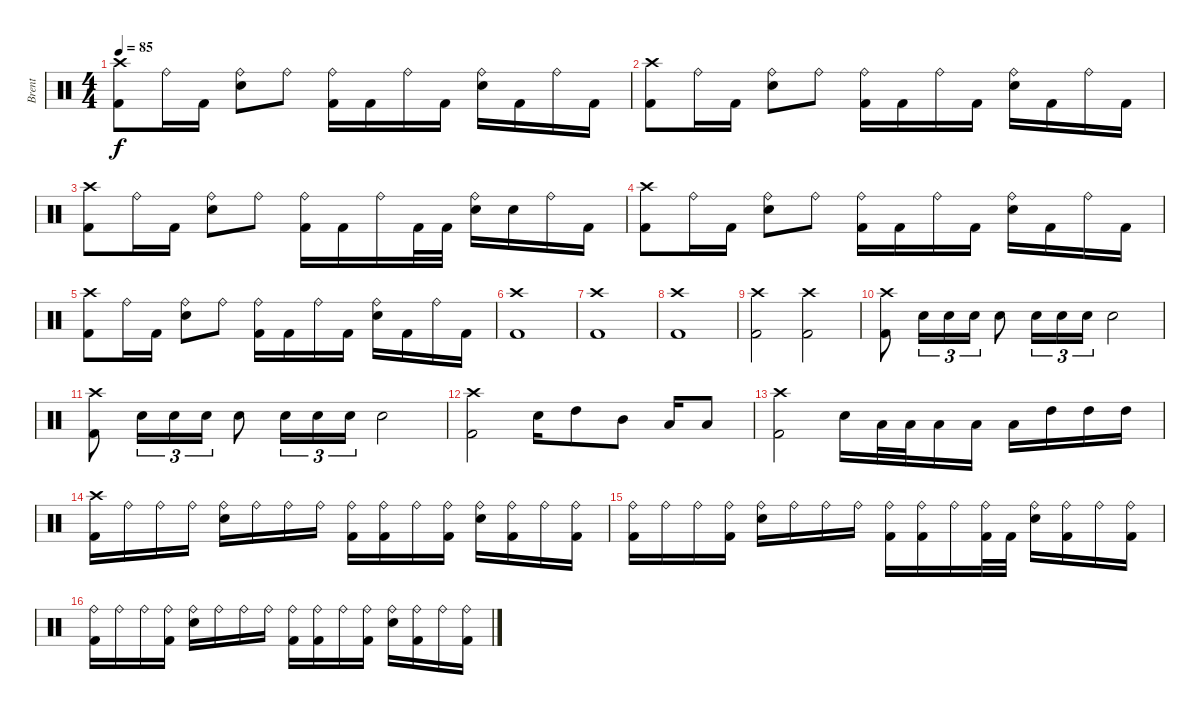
\track ("Brent" "Brent") {instrument percussion}
\staff {score}
\articulation defaults
\ts (4 4)
\tempo 85
\clef neutral
\ks c
("Crash high (hit)" "Kick (hit) 2").8{dy f} "Ride (bell)".16 "Kick (hit) 2".16 ("Ride (bell)" "Snare (hit) 2").8 "Ride (bell)".8 ("Ride (bell)" "Kick (hit) 2").16 "Kick (hit) 2".16 "Ride (bell)".16 "Kick (hit) 2".16 ("Ride (bell)" "Snare (hit) 2").16 "Kick (hit) 2".16 "Ride (bell)".16 "Kick (hit) 2".16 |
("Crash high (hit)" "Kick (hit) 2").8 "Ride (bell)".16 "Kick (hit) 2".16 ("Ride (bell)" "Snare (hit) 2").8 "Ride (bell)".8 ("Ride (bell)" "Kick (hit) 2").16 "Kick (hit) 2".16 "Ride (bell)".16 "Kick (hit) 2".16 ("Ride (bell)" "Snare (hit) 2").16 "Kick (hit) 2".16 "Ride (bell)".16 "Kick (hit) 2".16 |
("Crash high (hit)" "Kick (hit) 2").8 "Ride (bell)".16 "Kick (hit) 2".16 ("Ride (bell)" "Snare (hit) 2").8 "Ride (bell)".8 ("Ride (bell)" "Kick (hit) 2").16 "Kick (hit) 2".16 "Ride (bell)".16 "Kick (hit) 2".32 "Kick (hit) 2".32 ("Ride (bell)" "Snare (hit) 2").16 "Snare (hit) 2".16 "Ride (bell)".16 "Kick (hit) 2".16 |
("Crash high (hit)" "Kick (hit) 2").8 "Ride (bell)".16 "Kick (hit) 2".16 ("Ride (bell)" "Snare (hit) 2").8 "Ride (bell)".8 ("Ride (bell)" "Kick (hit) 2").16 "Kick (hit) 2".16 "Ride (bell)".16 "Kick (hit) 2".16 ("Ride (bell)" "Snare (hit) 2").16 "Kick (hit) 2".16 "Ride (bell)".16 "Kick (hit) 2".16 |
("Crash high (hit)" "Kick (hit) 2").8 "Ride (bell)".16 "Kick (hit) 2".16 ("Ride (bell)" "Snare (hit) 2").8 "Ride (bell)".8 ("Ride (bell)" "Kick (hit) 2").16 "Kick (hit) 2".16 "Ride (bell)".16 "Kick (hit) 2".16 ("Ride (bell)" "Snare (hit) 2").16 "Kick (hit) 2".16 "Ride (bell)".16 "Kick (hit) 2".16 |
("Crash high (hit)" "Kick (hit) 2").1 |
("Crash high (hit)" "Kick (hit) 2").1 |
("Crash high (hit)" "Kick (hit) 2").1 |
("Crash high (hit)" "Kick (hit) 2").2 ("Crash high (hit)" "Kick (hit) 2").2 |
("Crash high (hit)" "Kick (hit) 2").8 "Snare (hit) 2".16{tu (3 2)} "Snare (hit) 2".16{tu (3 2)} "Snare (hit) 2".16{tu (3 2)} "Snare (hit) 2".8 "Snare (hit) 2".16{tu (3 2)} "Snare (hit) 2".16{tu (3 2)} "Snare (hit) 2".16{tu (3 2)} "Snare (hit) 2".2 |
("Crash high (hit)" "Kick (hit) 2").8 "Snare (hit) 2".16{tu (3 2)} "Snare (hit) 2".16{tu (3 2)} "Snare (hit) 2".16{tu (3 2)} "Snare (hit) 2".8 "Snare (hit) 2".16{tu (3 2)} "Snare (hit) 2".16{tu (3 2)} "Snare (hit) 2".16{tu (3 2)} "Snare (hit) 2".2 |
("Crash high (hit)" "Kick (hit) 2").2 "Snare (hit) 2".16 "High Tom (hit)".8 "Mid Tom (hit)".8 "Low Tom (hit)".16 "Low Tom (hit)".8 |
("Crash high (hit)" "Kick (hit) 2").2 "Snare (hit) 2".16 "Low Tom (hit)".32 "Low Tom (hit)".32 "Low Tom (hit)".16 "Low Tom (hit)".16 "Low Tom (hit)".16 "High Tom (hit)".16 "High Tom (hit)".16 "High Tom (hit)".16 |
("Crash high (hit)" "Kick (hit) 2").16 "Ride (bell)".16 "Ride (bell)".16 "Ride (bell)".16 ("Ride (bell)" "Snare (hit) 2").16 "Ride (bell)".16 "Ride (bell)".16 "Ride (bell)".16 ("Ride (bell)" "Kick (hit) 2").16 ("Ride (bell)" "Kick (hit) 2").16 "Ride (bell)".16 ("Ride (bell)" "Kick (hit) 2").16 ("Ride (bell)" "Snare (hit) 2").16 ("Ride (bell)" "Kick (hit) 2").16 "Ride (bell)".16 ("Ride (bell)" "Kick (hit) 2").16 |
("Ride (bell)" "Kick (hit) 2").16 "Ride (bell)".16 "Ride (bell)".16 ("Ride (bell)" "Kick (hit) 2").16 ("Ride (bell)" "Snare (hit) 2").16 "Ride (bell)".16 "Ride (bell)".16 "Ride (bell)".16 ("Ride (bell)" "Kick (hit) 2").16 ("Ride (bell)" "Kick (hit) 2").16 "Ride (bell)".16 ("Ride (bell)" "Kick (hit) 2").32 "Kick (hit) 2".32 ("Ride (bell)" "Snare (hit) 2").16 ("Ride (bell)" "Kick (hit) 2").16 "Ride (bell)".16 ("Ride (bell)" "Kick (hit) 2").16 |
("Ride (bell)" "Kick (hit) 2").16 "Ride (bell)".16 "Ride (bell)".16 ("Ride (bell)" "Kick (hit) 2").16 ("Ride (bell)" "Snare (hit) 2").16 "Ride (bell)".16 "Ride (bell)".16 "Ride (bell)".16 ("Ride (bell)" "Kick (hit) 2").16 ("Ride (bell)" "Kick (hit) 2").16 "Ride (bell)".16 ("Ride (bell)" "Kick (hit) 2").16 ("Ride (bell)" "Snare (hit) 2").16 ("Ride (bell)" "Kick (hit) 2").16 "Ride (bell)".16 ("Ride (bell)" "Kick (hit) 2").16
